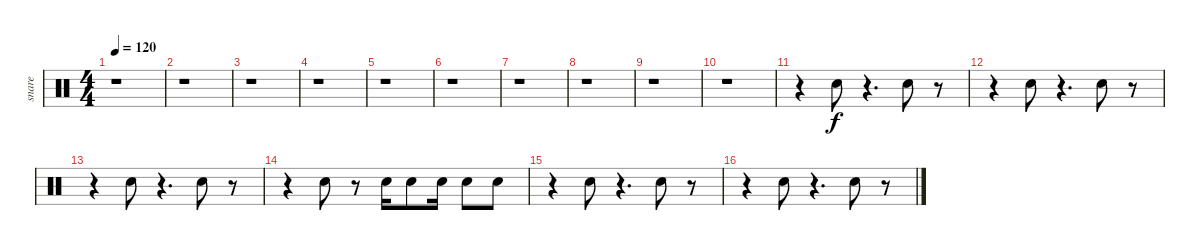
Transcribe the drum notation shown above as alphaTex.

\track ("snare" "snare") {instrument percussion}
\staff {score}
\articulation defaults
\ts (4 4)
\tempo 120
\clef neutral
\ks c
r.1{dy f} |
r.1 |
r.1 |
r.1 |
r.1 |
r.1 |
r.1 |
r.1 |
r.1 |
r.1 |
r.4 "Electric Snare (hit)".8 r.4{d} "Electric Snare (hit)".8 r.8 |
r.4 "Electric Snare (hit)".8 r.4{d} "Electric Snare (hit)".8 r.8 |
r.4 "Electric Snare (hit)".8 r.4{d} "Electric Snare (hit)".8 r.8 |
r.4 "Electric Snare (hit)".8 r.8 "Electric Snare (hit)".16 "Electric Snare (hit)".8 "Electric Snare (hit)".16 "Electric Snare (hit)".8 "Electric Snare (hit)".8 |
r.4 "Electric Snare (hit)".8 r.4{d} "Electric Snare (hit)".8 r.8 |
r.4 "Electric Snare (hit)".8 r.4{d} "Electric Snare (hit)".8 r.8
